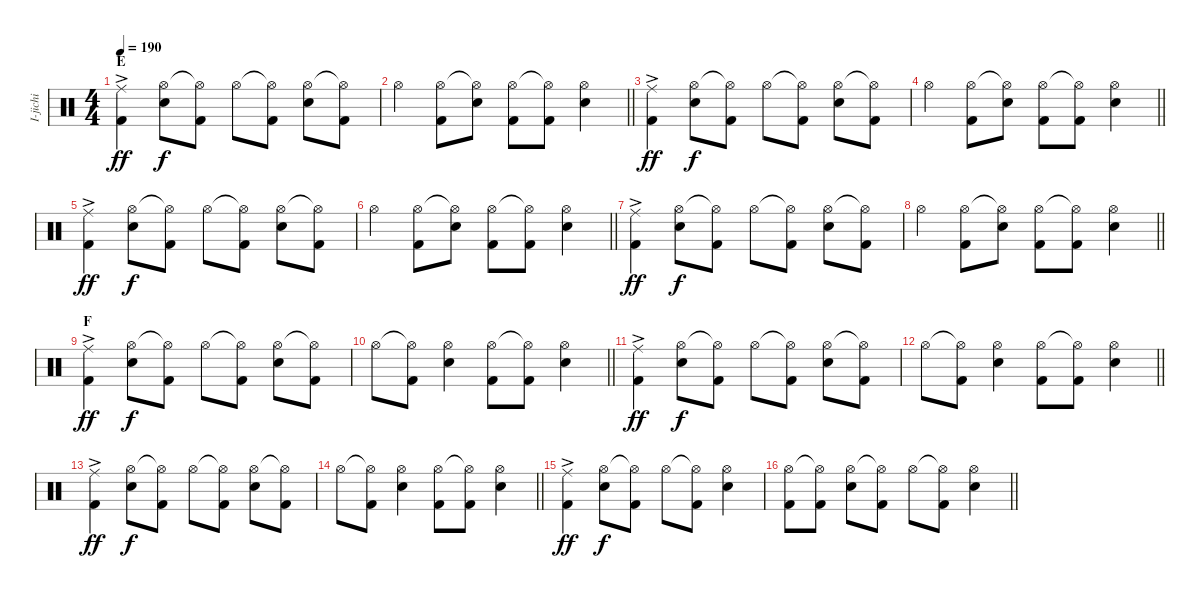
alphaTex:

\track ("I-jichi" "I-jichi") {instrument percussion}
\staff {score}
\articulation defaults
\ts (4 4)
\section ("" "E")
\tempo 190
\clef neutral
\ks c
("Ride (middle)"{ac} "Kick (hit) 2").4{dy ff} ("Hi-Hat (open)" "Snare (hit) 2").8{dy f} ("Hi-Hat (open)"{t} "Kick (hit) 2").8 "Hi-Hat (open)".8 ("Hi-Hat (open)"{t} "Kick (hit) 2").8 ("Hi-Hat (open)" "Snare (hit) 2").8 ("Hi-Hat (open)"{t} "Kick (hit) 2").8 |
\barLineRight lightlight "Hi-Hat (open)".4
("Hi-Hat (open)" "Kick (hit) 2").8 ("Hi-Hat (open)"{t} "Snare (hit) 2").8 ("Hi-Hat (open)" "Kick (hit) 2").8 ("Hi-Hat (open)"{t} "Kick (hit) 2").8 ("Hi-Hat (open)" "Snare (hit) 2").4 |
("Ride (middle)"{ac} "Kick (hit) 2").4{dy ff} ("Hi-Hat (open)" "Snare (hit) 2").8{dy f} ("Hi-Hat (open)"{t} "Kick (hit) 2").8 "Hi-Hat (open)".8 ("Hi-Hat (open)"{t} "Kick (hit) 2").8 ("Hi-Hat (open)" "Snare (hit) 2").8 ("Hi-Hat (open)"{t} "Kick (hit) 2").8 |
\barLineRight lightlight "Hi-Hat (open)".4
("Hi-Hat (open)" "Kick (hit) 2").8 ("Hi-Hat (open)"{t} "Snare (hit) 2").8 ("Hi-Hat (open)" "Kick (hit) 2").8 ("Hi-Hat (open)"{t} "Kick (hit) 2").8 ("Hi-Hat (open)" "Snare (hit) 2").4 |
("Ride (middle)"{ac} "Kick (hit) 2").4{dy ff} ("Hi-Hat (open)" "Snare (hit) 2").8{dy f} ("Hi-Hat (open)"{t} "Kick (hit) 2").8 "Hi-Hat (open)".8 ("Hi-Hat (open)"{t} "Kick (hit) 2").8 ("Hi-Hat (open)" "Snare (hit) 2").8 ("Hi-Hat (open)"{t} "Kick (hit) 2").8 |
\barLineRight lightlight "Hi-Hat (open)".4
("Hi-Hat (open)" "Kick (hit) 2").8 ("Hi-Hat (open)"{t} "Snare (hit) 2").8 ("Hi-Hat (open)" "Kick (hit) 2").8 ("Hi-Hat (open)"{t} "Kick (hit) 2").8 ("Hi-Hat (open)" "Snare (hit) 2").4 |
("Ride (middle)"{ac} "Kick (hit) 2").4{dy ff} ("Hi-Hat (open)" "Snare (hit) 2").8{dy f} ("Hi-Hat (open)"{t} "Kick (hit) 2").8 "Hi-Hat (open)".8 ("Hi-Hat (open)"{t} "Kick (hit) 2").8 ("Hi-Hat (open)" "Snare (hit) 2").8 ("Hi-Hat (open)"{t} "Kick (hit) 2").8 |
\barLineRight lightlight "Hi-Hat (open)".4
("Hi-Hat (open)" "Kick (hit) 2").8 ("Hi-Hat (open)"{t} "Snare (hit) 2").8 ("Hi-Hat (open)" "Kick (hit) 2").8 ("Hi-Hat (open)"{t} "Kick (hit) 2").8 ("Hi-Hat (open)" "Snare (hit) 2").4 |
\section ("" "F")
("Ride (middle)"{ac} "Kick (hit) 2").4{dy ff} ("Hi-Hat (open)" "Snare (hit) 2").8{dy f} ("Hi-Hat (open)"{t} "Kick (hit) 2").8 "Hi-Hat (open)".8 ("Hi-Hat (open)"{t} "Kick (hit) 2").8 ("Hi-Hat (open)" "Snare (hit) 2").8 ("Hi-Hat (open)"{t} "Kick (hit) 2").8 |
\barLineRight lightlight "Hi-Hat (open)".8
("Hi-Hat (open)"{t} "Kick (hit) 2").8 ("Hi-Hat (open)" "Snare (hit) 2").4 ("Hi-Hat (open)" "Kick (hit) 2").8 ("Hi-Hat (open)"{t} "Kick (hit) 2").8 ("Hi-Hat (open)" "Snare (hit) 2").4 |
("Ride (middle)"{ac} "Kick (hit) 2").4{dy ff} ("Hi-Hat (open)" "Snare (hit) 2").8{dy f} ("Hi-Hat (open)"{t} "Kick (hit) 2").8 "Hi-Hat (open)".8 ("Hi-Hat (open)"{t} "Kick (hit) 2").8 ("Hi-Hat (open)" "Snare (hit) 2").8 ("Hi-Hat (open)"{t} "Kick (hit) 2").8 |
\barLineRight lightlight "Hi-Hat (open)".8
("Hi-Hat (open)"{t} "Kick (hit) 2").8 ("Hi-Hat (open)" "Snare (hit) 2").4 ("Hi-Hat (open)" "Kick (hit) 2").8 ("Hi-Hat (open)"{t} "Kick (hit) 2").8 ("Hi-Hat (open)" "Snare (hit) 2").4 |
("Ride (middle)"{ac} "Kick (hit) 2").4{dy ff} ("Hi-Hat (open)" "Snare (hit) 2").8{dy f} ("Hi-Hat (open)"{t} "Kick (hit) 2").8 "Hi-Hat (open)".8 ("Hi-Hat (open)"{t} "Kick (hit) 2").8 ("Hi-Hat (open)" "Snare (hit) 2").8 ("Hi-Hat (open)"{t} "Kick (hit) 2").8 |
\barLineRight lightlight "Hi-Hat (open)".8
("Hi-Hat (open)"{t} "Kick (hit) 2").8 ("Hi-Hat (open)" "Snare (hit) 2").4 ("Hi-Hat (open)" "Kick (hit) 2").8 ("Hi-Hat (open)"{t} "Kick (hit) 2").8 ("Hi-Hat (open)" "Snare (hit) 2").4 |
("Ride (middle)"{ac} "Kick (hit) 2").4{dy ff} ("Hi-Hat (open)" "Snare (hit) 2").8{dy f} ("Hi-Hat (open)"{t} "Kick (hit) 2").8 "Hi-Hat (open)".8 ("Hi-Hat (open)"{t} "Kick (hit) 2").8 ("Hi-Hat (open)" "Snare (hit) 2").4 |
\barLineRight lightlight
("Hi-Hat (open)" "Kick (hit) 2").8 ("Hi-Hat (open)"{t} "Kick (hit) 2").8 ("Hi-Hat (open)" "Snare (hit) 2").8 ("Hi-Hat (open)"{t} "Kick (hit) 2").8 "Hi-Hat (open)".8 ("Hi-Hat (open)"{t} "Kick (hit) 2").8 ("Hi-Hat (open)" "Snare (hit) 2").4
